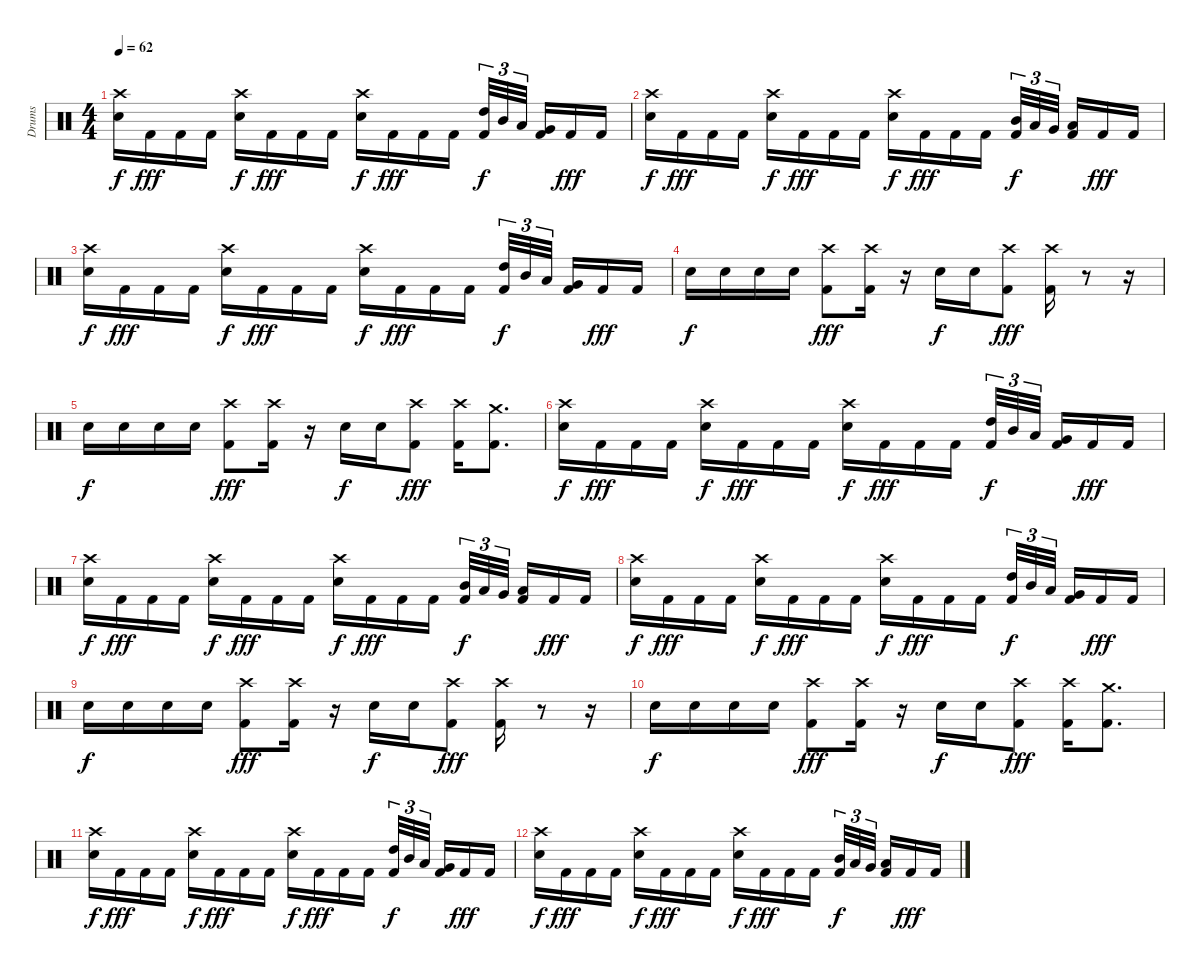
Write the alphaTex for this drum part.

\track ("Drums" "Drums") {instrument percussion}
\staff {score}
\articulation defaults
\ts (4 4)
\tempo 62
\clef neutral
\ks c
("Crash high (hit)" "Snare (hit) 2").16{dy f} "Kick (hit) 2".16{dy fff} "Kick (hit) 2".16 "Kick (hit) 2".16 ("Crash high (hit)" "Snare (hit) 2").16{dy f} "Kick (hit) 2".16{dy fff} "Kick (hit) 2".16 "Kick (hit) 2".16 ("Crash high (hit)" "Snare (hit) 2").16{dy f} "Kick (hit) 2".16{dy fff} "Kick (hit) 2".16 "Kick (hit) 2".16 ("High Tom (hit)" "Kick (hit) 2").32{tu (3 2) dy f} "Mid Tom (hit)".32{tu (3 2)} "Low Tom (hit)".32{tu (3 2) beam splitsecondary} ("Very Low Tom (hit)" "Kick (hit) 2").16 "Kick (hit) 2".16{dy fff} "Kick (hit) 2".16 |
("Crash high (hit)" "Snare (hit) 2").16{dy f} "Kick (hit) 2".16{dy fff} "Kick (hit) 2".16 "Kick (hit) 2".16 ("Crash high (hit)" "Snare (hit) 2").16{dy f} "Kick (hit) 2".16{dy fff} "Kick (hit) 2".16 "Kick (hit) 2".16 ("Crash high (hit)" "Snare (hit) 2").16{dy f} "Kick (hit) 2".16{dy fff} "Kick (hit) 2".16 "Kick (hit) 2".16 ("Mid Tom (hit)" "Kick (hit) 2").32{tu (3 2) dy f} "Low Tom (hit)".32{tu (3 2)} "Very Low Tom (hit)".32{tu (3 2) beam splitsecondary} ("Low Floor Tom (hit)" "Kick (hit) 2").16 "Kick (hit) 2".16{dy fff} "Kick (hit) 2".16 |
("Crash high (hit)" "Snare (hit) 2").16{dy f} "Kick (hit) 2".16{dy fff} "Kick (hit) 2".16 "Kick (hit) 2".16 ("Crash high (hit)" "Snare (hit) 2").16{dy f} "Kick (hit) 2".16{dy fff} "Kick (hit) 2".16 "Kick (hit) 2".16 ("Crash high (hit)" "Snare (hit) 2").16{dy f} "Kick (hit) 2".16{dy fff} "Kick (hit) 2".16 "Kick (hit) 2".16 ("High Tom (hit)" "Kick (hit) 2").32{tu (3 2) dy f} "Mid Tom (hit)".32{tu (3 2)} "Low Tom (hit)".32{tu (3 2) beam splitsecondary} ("Very Low Tom (hit)" "Kick (hit) 2").16 "Kick (hit) 2".16{dy fff} "Kick (hit) 2".16 |
"Snare (hit) 2".16{dy f} "Snare (hit) 2".16 "Snare (hit) 2".16 "Snare (hit) 2".16 ("Crash high (hit)" "Kick (hit) 2").8{dy fff} ("Crash high (hit)" "Kick (hit) 2").16 r.16{volume 0} "Snare (hit) 2".16{dy f volume 11} "Snare (hit) 2".16 ("Crash high (hit)" "Kick (hit) 2").8{dy fff} ("Crash high (hit)" "Kick (hit) 2").16 r.8{volume 0} r.16 |
"Snare (hit) 2".16{dy f volume 11} "Snare (hit) 2".16 "Snare (hit) 2".16 "Snare (hit) 2".16 ("Crash high (hit)" "Kick (hit) 2").8{dy fff} ("Crash high (hit)" "Kick (hit) 2").16 r.16{volume 0} "Snare (hit) 2".16{dy f volume 11} "Snare (hit) 2".16 ("Crash high (hit)" "Kick (hit) 2").8{dy fff} ("Crash high (hit)" "Kick (hit) 2").16 ("Crash medium (hit)" "Kick (hit) 2").8{d} |
("Crash high (hit)" "Snare (hit) 2").16{dy f volume 6} "Kick (hit) 2".16{dy fff} "Kick (hit) 2".16 "Kick (hit) 2".16 ("Crash high (hit)" "Snare (hit) 2").16{dy f} "Kick (hit) 2".16{dy fff} "Kick (hit) 2".16 "Kick (hit) 2".16 ("Crash high (hit)" "Snare (hit) 2").16{dy f} "Kick (hit) 2".16{dy fff} "Kick (hit) 2".16 "Kick (hit) 2".16 ("High Tom (hit)" "Kick (hit) 2").32{tu (3 2) dy f} "Mid Tom (hit)".32{tu (3 2)} "Low Tom (hit)".32{tu (3 2) beam splitsecondary} ("Very Low Tom (hit)" "Kick (hit) 2").16 "Kick (hit) 2".16{dy fff} "Kick (hit) 2".16 |
("Crash high (hit)" "Snare (hit) 2").16{dy f} "Kick (hit) 2".16{dy fff} "Kick (hit) 2".16 "Kick (hit) 2".16 ("Crash high (hit)" "Snare (hit) 2").16{dy f} "Kick (hit) 2".16{dy fff} "Kick (hit) 2".16 "Kick (hit) 2".16 ("Crash high (hit)" "Snare (hit) 2").16{dy f} "Kick (hit) 2".16{dy fff} "Kick (hit) 2".16 "Kick (hit) 2".16 ("Mid Tom (hit)" "Kick (hit) 2").32{tu (3 2) dy f} "Low Tom (hit)".32{tu (3 2)} "Very Low Tom (hit)".32{tu (3 2) beam splitsecondary} ("Low Floor Tom (hit)" "Kick (hit) 2").16 "Kick (hit) 2".16{dy fff} "Kick (hit) 2".16 |
("Crash high (hit)" "Snare (hit) 2").16{dy f} "Kick (hit) 2".16{dy fff} "Kick (hit) 2".16 "Kick (hit) 2".16 ("Crash high (hit)" "Snare (hit) 2").16{dy f} "Kick (hit) 2".16{dy fff} "Kick (hit) 2".16 "Kick (hit) 2".16 ("Crash high (hit)" "Snare (hit) 2").16{dy f} "Kick (hit) 2".16{dy fff} "Kick (hit) 2".16 "Kick (hit) 2".16 ("High Tom (hit)" "Kick (hit) 2").32{tu (3 2) dy f} "Mid Tom (hit)".32{tu (3 2)} "Low Tom (hit)".32{tu (3 2) beam splitsecondary} ("Very Low Tom (hit)" "Kick (hit) 2").16 "Kick (hit) 2".16{dy fff} "Kick (hit) 2".16 |
"Snare (hit) 2".16{dy f} "Snare (hit) 2".16 "Snare (hit) 2".16 "Snare (hit) 2".16 ("Crash high (hit)" "Kick (hit) 2").8{dy fff} ("Crash high (hit)" "Kick (hit) 2").16 r.16{volume 0} "Snare (hit) 2".16{dy f volume 5} "Snare (hit) 2".16 ("Crash high (hit)" "Kick (hit) 2").8{dy fff} ("Crash high (hit)" "Kick (hit) 2").16 r.8{volume 0} r.16 |
"Snare (hit) 2".16{dy f volume 4} "Snare (hit) 2".16 "Snare (hit) 2".16 "Snare (hit) 2".16 ("Crash high (hit)" "Kick (hit) 2").8{dy fff} ("Crash high (hit)" "Kick (hit) 2").16 r.16{volume 0} "Snare (hit) 2".16{dy f volume 3} "Snare (hit) 2".16 ("Crash high (hit)" "Kick (hit) 2").8{dy fff} ("Crash high (hit)" "Kick (hit) 2").16 ("Crash medium (hit)" "Kick (hit) 2").8{d} |
("Crash high (hit)" "Snare (hit) 2").16{dy f volume 0} "Kick (hit) 2".16{dy fff} "Kick (hit) 2".16 "Kick (hit) 2".16 ("Crash high (hit)" "Snare (hit) 2").16{dy f} "Kick (hit) 2".16{dy fff} "Kick (hit) 2".16 "Kick (hit) 2".16 ("Crash high (hit)" "Snare (hit) 2").16{dy f} "Kick (hit) 2".16{dy fff} "Kick (hit) 2".16 "Kick (hit) 2".16 ("High Tom (hit)" "Kick (hit) 2").32{tu (3 2) dy f} "Mid Tom (hit)".32{tu (3 2)} "Low Tom (hit)".32{tu (3 2) beam splitsecondary} ("Very Low Tom (hit)" "Kick (hit) 2").16 "Kick (hit) 2".16{dy fff} "Kick (hit) 2".16 |
("Crash high (hit)" "Snare (hit) 2").16{dy f} "Kick (hit) 2".16{dy fff} "Kick (hit) 2".16 "Kick (hit) 2".16 ("Crash high (hit)" "Snare (hit) 2").16{dy f} "Kick (hit) 2".16{dy fff} "Kick (hit) 2".16 "Kick (hit) 2".16 ("Crash high (hit)" "Snare (hit) 2").16{dy f} "Kick (hit) 2".16{dy fff} "Kick (hit) 2".16 "Kick (hit) 2".16 ("Mid Tom (hit)" "Kick (hit) 2").32{tu (3 2) dy f} "Low Tom (hit)".32{tu (3 2)} "Very Low Tom (hit)".32{tu (3 2) beam splitsecondary} ("Low Floor Tom (hit)" "Kick (hit) 2").16 "Kick (hit) 2".16{dy fff} "Kick (hit) 2".16
